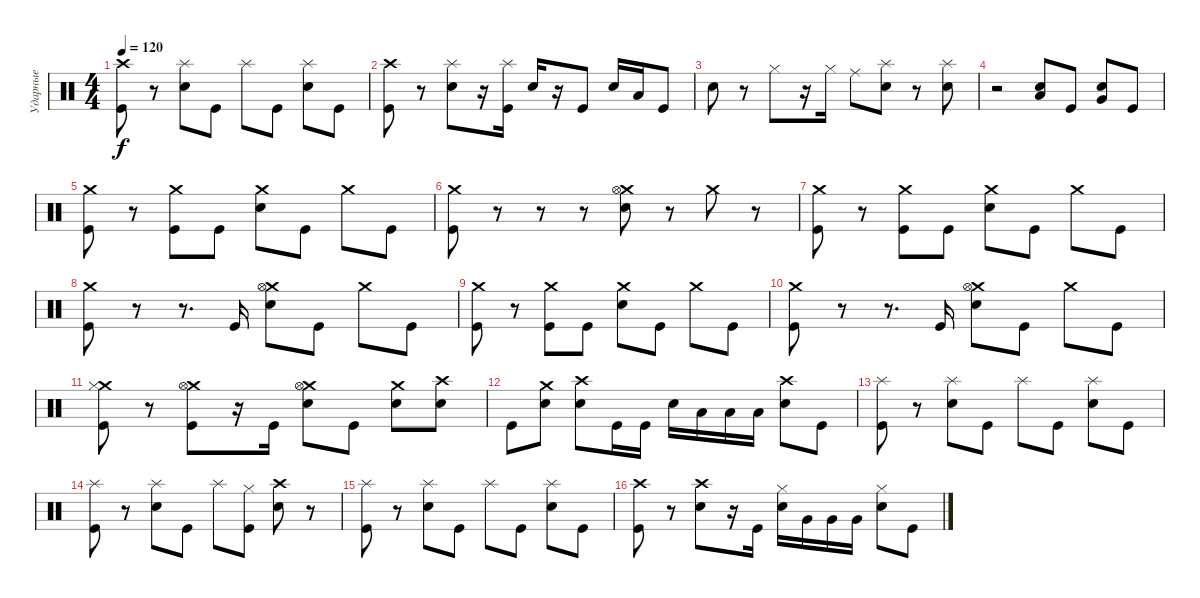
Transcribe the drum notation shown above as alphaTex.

\track ("Ударные" "Ударные") {instrument percussion}
\staff {score}
\articulation defaults
\ts (4 4)
\tempo 120
\clef neutral
\ks c
("Crash high (hit)" "Kick (hit)").8{dy f} r.8 ("Splash (hit)" "Snare (hit) 2").8 "Kick (hit)".8 "Splash (hit)".8 "Kick (hit)".8 ("Splash (hit)" "Snare (hit) 2").8 "Kick (hit)".8 |
("Crash high (hit)" "Kick (hit)").8 r.8 ("Splash (hit)" "Snare (hit) 2").8 r.16 ("Splash (hit)" "Kick (hit)").16 "Snare (hit) 2".16 r.16 "Kick (hit)".8 "Snare (hit) 2".16 "Low Tom (hit)".16 "Kick (hit)".8 |
"Snare (hit) 2".8 r.8 "Hi-Hat (closed)".8 r.16 "Hi-Hat (closed)".16 "Ride (middle)".8 ("Splash (hit)" "Snare (hit) 2").8 r.8 ("Splash (hit)" "Snare (hit) 2").8 |
r.2 ("Snare (hit) 2" "Low Tom (hit)").8 "Kick (hit)".8 ("Snare (hit) 2" "Very Low Tom (hit)").8 "Kick (hit)".8 |
("Crash medium (hit)" "Kick (hit)").8 r.8 ("Crash medium (hit)" "Kick (hit)").8 "Kick (hit)".8 ("Crash medium (hit)" "Snare (hit) 2").8 "Kick (hit)".8 "Crash medium (hit)".8 "Kick (hit)".8 |
("Crash medium (hit)" "Kick (hit)").8 r.8 r.8 r.8 ("Crash medium (hit)" "Hi-Hat (open)" "Snare (hit) 2").8 r.8 "Crash medium (hit)".8 r.8 |
("Crash medium (hit)" "Kick (hit)").8 r.8 ("Crash medium (hit)" "Kick (hit)").8 "Kick (hit)".8 ("Crash medium (hit)" "Snare (hit) 2").8 "Kick (hit)".8 "Crash medium (hit)".8 "Kick (hit)".8 |
("Crash medium (hit)" "Kick (hit)").8 r.8 r.8{d} "Kick (hit)".16 ("Crash medium (hit)" "Hi-Hat (open)" "Snare (hit) 2").8 "Kick (hit)".8 "Crash medium (hit)".8 "Kick (hit)".8 |
("Crash medium (hit)" "Kick (hit)").8 r.8 ("Crash medium (hit)" "Kick (hit)").8 "Kick (hit)".8 ("Crash medium (hit)" "Snare (hit) 2").8 "Kick (hit)".8 "Crash medium (hit)".8 "Kick (hit)".8 |
("Crash medium (hit)" "Kick (hit)").8 r.8 r.8{d} "Kick (hit)".16 ("Crash medium (hit)" "Hi-Hat (open)" "Snare (hit) 2").8 "Kick (hit)".8 "Crash medium (hit)".8 "Kick (hit)".8 |
("Crash medium (hit)" "Hi-Hat (closed)" "Kick (hit)").8 r.8 ("Crash medium (hit)" "Hi-Hat (open)" "Kick (hit)").8 r.16 "Kick (hit)".16 ("Crash medium (hit)" "Hi-Hat (open)" "Snare (hit) 2").8 "Kick (hit)".8 ("Crash medium (hit)" "Snare (hit) 2").8 ("Crash high (hit)" "Snare (hit) 2").8 |
"Kick (hit)".8 ("Crash medium (hit)" "Snare (hit) 2").8 ("Crash high (hit)" "Snare (hit) 2").8 "Kick (hit)".16 "Kick (hit)".16 "Snare (hit) 2".16 "Low Tom (hit)".16 "Low Tom (hit)".16 "Low Tom (hit)".16 ("Crash high (hit)" "Snare (hit) 2").8 "Kick (hit)".8 |
("Splash (hit)" "Kick (hit)").8 r.8 ("Splash (hit)" "Snare (hit) 2").8 "Kick (hit)".8 "Splash (hit)".8 "Kick (hit)".8 ("Splash (hit)" "Snare (hit) 2").8 "Kick (hit)".8 |
("Splash (hit)" "Kick (hit)").8 r.8 ("Splash (hit)" "Snare (hit) 2").8 "Kick (hit)".8 "Splash (hit)".8 ("Hi-Hat (closed)" "Kick (hit)").8 ("Crash high (hit)" "Snare (hit) 2").8 r.8 |
("Splash (hit)" "Kick (hit)").8 r.8 ("Splash (hit)" "Snare (hit) 2").8 "Kick (hit)".8 "Splash (hit)".8 "Kick (hit)".8 ("Splash (hit)" "Snare (hit) 2").8 "Kick (hit)".8 |
("Crash high (hit)" "Kick (hit)").8 r.8 ("Crash high (hit)" "Snare (hit) 2").8 r.16 "Kick (hit)".16 ("Hi-Hat (closed)" "Snare (hit) 2").16 "Very Low Tom (hit)".16 "Very Low Tom (hit)".16 "Very Low Tom (hit)".16 ("Hi-Hat (closed)" "Snare (hit) 2").8 "Kick (hit)".8
